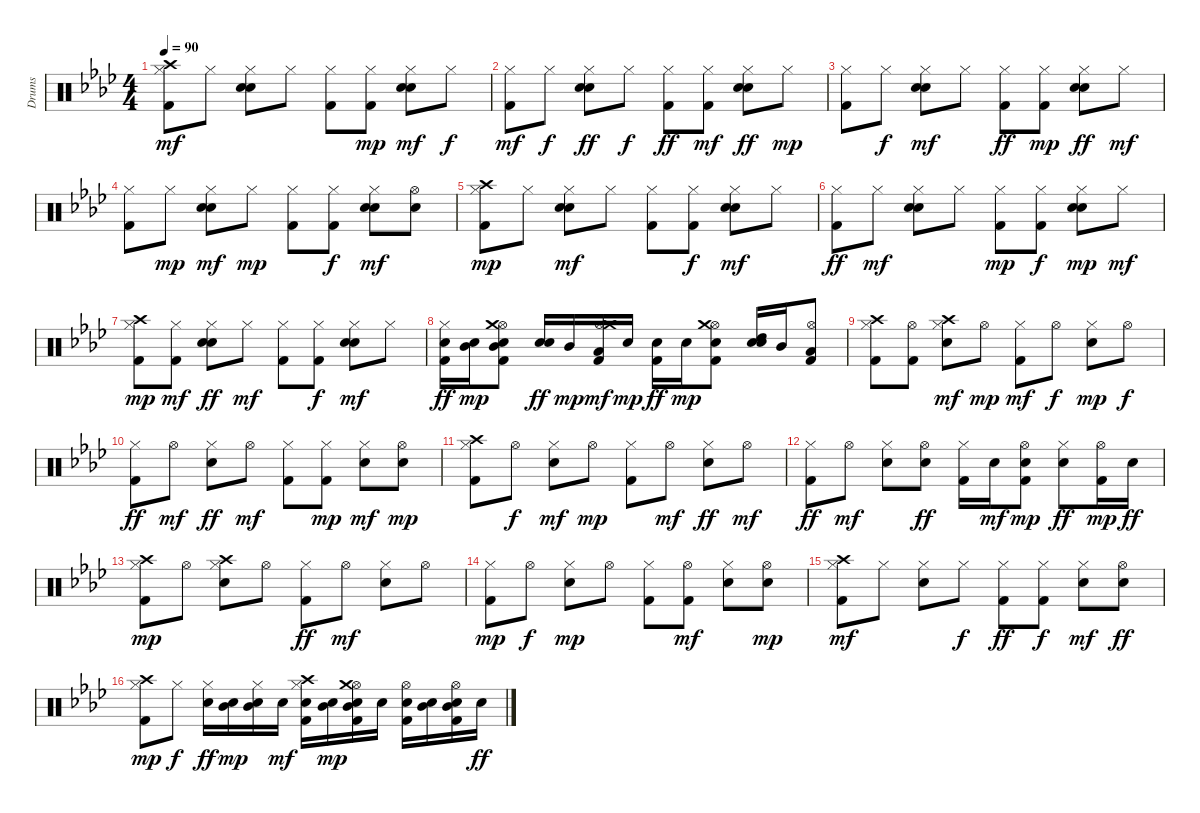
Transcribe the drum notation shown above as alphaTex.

\track ("Drums" "Drums") {instrument percussion}
\staff {score}
\articulation defaults
\ts (4 4)
\tempo 90
\clef neutral
\ks ab
("Kick (hit) 2" "Hi-Hat (closed)" "Crash high (hit)").8{dy mf} "Hi-Hat (closed)".8 ("Snare (hit) 2" "Hand Clap (hit)" "Hi-Hat (closed)").8 "Hi-Hat (closed)".8 ("Kick (hit) 2" "Hi-Hat (closed)").8 ("Kick (hit) 2" "Hi-Hat (closed)").8{dy mp} ("Snare (hit) 2" "Hand Clap (hit)" "Hi-Hat (closed)").8{dy mf} "Hi-Hat (closed)".8{dy f} |
("Kick (hit) 2" "Hi-Hat (closed)").8{dy mf} "Hi-Hat (closed)".8{dy f} ("Snare (hit) 2" "Hand Clap (hit)" "Hi-Hat (closed)").8{dy ff} "Hi-Hat (closed)".8{dy f} ("Kick (hit) 2" "Hi-Hat (closed)").8{dy ff} ("Kick (hit) 2" "Hi-Hat (closed)").8{dy mf} ("Snare (hit) 2" "Hand Clap (hit)" "Hi-Hat (closed)").8{dy ff} "Hi-Hat (closed)".8{dy mp} |
("Kick (hit) 2" "Hi-Hat (closed)").8 "Hi-Hat (closed)".8{dy f} ("Snare (hit) 2" "Hand Clap (hit)" "Hi-Hat (closed)").8{dy mf} "Hi-Hat (closed)".8 ("Kick (hit) 2" "Hi-Hat (closed)").8{dy ff} ("Kick (hit) 2" "Hi-Hat (closed)").8{dy mp} ("Snare (hit) 2" "Hand Clap (hit)" "Hi-Hat (closed)").8{dy ff} "Hi-Hat (closed)".8{dy mf} |
("Kick (hit) 2" "Hi-Hat (closed)").8 "Hi-Hat (closed)".8{dy mp} ("Snare (hit) 2" "Hand Clap (hit)" "Hi-Hat (closed)").8{dy mf} "Hi-Hat (closed)".8{dy mp} ("Kick (hit) 2" "Hi-Hat (closed)").8 ("Kick (hit) 2" "Hi-Hat (closed)").8{dy f} ("Snare (hit) 2" "Hand Clap (hit)" "Hi-Hat (closed)").8{dy mf} ("Snare (hit) 2" "Hi-Hat (open)").8 |
("Kick (hit) 2" "Hi-Hat (closed)" "Crash high (hit)").8{dy mp} "Hi-Hat (closed)".8 ("Snare (hit) 2" "Hand Clap (hit)" "Hi-Hat (closed)").8{dy mf} "Hi-Hat (closed)".8 ("Kick (hit) 2" "Hi-Hat (closed)").8 ("Kick (hit) 2" "Hi-Hat (closed)").8{dy f} ("Snare (hit) 2" "Hand Clap (hit)" "Hi-Hat (closed)").8{dy mf} "Hi-Hat (closed)".8 |
("Kick (hit) 2" "Hi-Hat (closed)").8{dy ff} "Hi-Hat (closed)".8{dy mf} ("Snare (hit) 2" "Hand Clap (hit)" "Hi-Hat (closed)").8 "Hi-Hat (closed)".8 ("Kick (hit) 2" "Hi-Hat (closed)").8{dy mp} ("Kick (hit) 2" "Hi-Hat (closed)").8{dy f} ("Snare (hit) 2" "Hand Clap (hit)" "Hi-Hat (closed)").8{dy mp} "Hi-Hat (closed)".8{dy mf} |
("Kick (hit) 2" "Hi-Hat (closed)" "Crash high (hit)").8{dy mp} ("Kick (hit) 2" "Hi-Hat (closed)").8{dy mf} ("Snare (hit) 2" "Hand Clap (hit)" "Hi-Hat (closed)").8{dy ff} "Hi-Hat (closed)".8{dy mf} ("Kick (hit) 2" "Hi-Hat (closed)").8 ("Kick (hit) 2" "Hi-Hat (closed)").8{dy f} ("Snare (hit) 2" "Hand Clap (hit)" "Hi-Hat (closed)").8{dy mf} "Hi-Hat (closed)".8 |
("Kick (hit) 2" "Snare (hit) 2" "Hi-Hat (closed)").16{dy ff} ("Snare (hit) 2" "Mid Tom (hit)").16{dy mp} ("Kick (hit) 2" "Snare (hit) 2" "Hi-Hat (open)" "Mid Tom (hit)" "Crash medium (hit)").8 ("Snare (hit) 2" "Hand Clap (hit)").16{dy ff} "Mid Tom (hit)".16{dy mp} ("Kick (hit) 2" "Low Tom (hit)" "Hi-Hat (open)" "Crash medium (hit)").16{dy mf} "Snare (hit) 2".16{dy mp} ("Kick (hit) 2" "Snare (hit) 2").16{dy ff} "Snare (hit) 2".16{dy mp} ("Kick (hit) 2" "Snare (hit) 2" "Hi-Hat (open)" "Crash medium (hit)").8 ("Snare (hit) 2" "Hand Clap (hit)" "High Tom (hit)").16 "Mid Tom (hit)".16 ("Kick (hit) 2" "Low Tom (hit)" "Hi-Hat (open)").8 |
("Kick (hit) 2" "Hi-Hat (closed)" "Crash high (hit)").8 ("Kick (hit) 2" "Hi-Hat (open)").8 ("Snare (hit) 2" "Hi-Hat (closed)" "Crash high (hit)").8{dy mf} "Hi-Hat (open)".8{dy mp} ("Kick (hit) 2" "Hi-Hat (closed)").8{dy mf} "Hi-Hat (open)".8{dy f} ("Snare (hit) 2" "Hi-Hat (closed)").8{dy mp} "Hi-Hat (open)".8{dy f} |
("Kick (hit) 2" "Hi-Hat (closed)").8{dy ff} "Hi-Hat (open)".8{dy mf} ("Snare (hit) 2" "Hi-Hat (closed)").8{dy ff} "Hi-Hat (open)".8{dy mf} ("Kick (hit) 2" "Hi-Hat (closed)").8 ("Kick (hit) 2" "Hi-Hat (closed)").8{dy mp} ("Snare (hit) 2" "Hi-Hat (closed)").8{dy mf} ("Snare (hit) 2" "Hi-Hat (open)").8{dy mp} |
("Kick (hit) 2" "Hi-Hat (closed)" "Crash high (hit)").8 "Hi-Hat (open)".8{dy f} ("Snare (hit) 2" "Hi-Hat (closed)").8{dy mf} "Hi-Hat (open)".8{dy mp} ("Kick (hit) 2" "Hi-Hat (closed)").8 "Hi-Hat (open)".8{dy mf} ("Snare (hit) 2" "Hi-Hat (closed)").8{dy ff} "Hi-Hat (open)".8{dy mf} |
("Kick (hit) 2" "Hi-Hat (closed)").8{dy ff} "Hi-Hat (open)".8{dy mf} ("Snare (hit) 2" "Hi-Hat (closed)").8 ("Snare (hit) 2" "Hi-Hat (open)").8{dy ff} ("Kick (hit) 2" "Hi-Hat (closed)").16 "Snare (hit) 2".16{dy mf} ("Kick (hit) 2" "Snare (hit) 2" "Hi-Hat (open)").8{dy mp} ("Snare (hit) 2" "Hi-Hat (closed)").8{dy ff} ("Kick (hit) 2" "Hi-Hat (open)").16{dy mp} "Snare (hit) 2".16{dy ff} |
("Kick (hit) 2" "Hi-Hat (closed)" "Crash high (hit)").8{dy mp} "Hi-Hat (open)".8 ("Snare (hit) 2" "Hi-Hat (closed)" "Crash high (hit)").8 "Hi-Hat (open)".8 ("Kick (hit) 2" "Hi-Hat (closed)").8{dy ff} "Hi-Hat (open)".8{dy mf} ("Snare (hit) 2" "Hi-Hat (closed)").8 "Hi-Hat (open)".8 |
("Kick (hit) 2" "Hi-Hat (closed)").8{dy mp} "Hi-Hat (open)".8{dy f} ("Snare (hit) 2" "Hi-Hat (closed)").8{dy mp} "Hi-Hat (open)".8 ("Kick (hit) 2" "Hi-Hat (closed)").8 ("Kick (hit) 2" "Hi-Hat (open)").8{dy mf} ("Snare (hit) 2" "Hi-Hat (closed)").8 ("Snare (hit) 2" "Hi-Hat (open)").8{dy mp} |
("Kick (hit) 2" "Hi-Hat (closed)" "Crash high (hit)").8{dy mf} "Hi-Hat (closed)".8 ("Snare (hit) 2" "Hi-Hat (closed)").8 "Hi-Hat (closed)".8{dy f} ("Kick (hit) 2" "Hi-Hat (closed)").8{dy ff} ("Kick (hit) 2" "Hi-Hat (closed)").8{dy f} ("Snare (hit) 2" "Hi-Hat (closed)").8{dy mf} ("Snare (hit) 2" "Hi-Hat (open)").8{dy ff} |
("Kick (hit) 2" "Hi-Hat (closed)" "Crash high (hit)").8{dy mp} "Hi-Hat (closed)".8{dy f} ("Snare (hit) 2" "Hi-Hat (closed)").16{dy ff} ("Snare (hit) 2" "Mid Tom (hit)").16{dy mp} ("Snare (hit) 2" "Hi-Hat (closed)" "Mid Tom (hit)").16 "Snare (hit) 2".16{dy mf} ("Kick (hit) 2" "Snare (hit) 2" "Hi-Hat (closed)" "Crash high (hit)").16 ("Snare (hit) 2" "Mid Tom (hit)").16{dy mp} ("Kick (hit) 2" "Snare (hit) 2" "Hi-Hat (open)" "Mid Tom (hit)" "Crash medium (hit)").16 "Snare (hit) 2".16 ("Kick (hit) 2" "Snare (hit) 2" "Hi-Hat (open)").16 ("Snare (hit) 2" "Mid Tom (hit)").16 ("Kick (hit) 2" "Snare (hit) 2" "Hi-Hat (open)" "Mid Tom (hit)").16 "Snare (hit) 2".16{dy ff}
